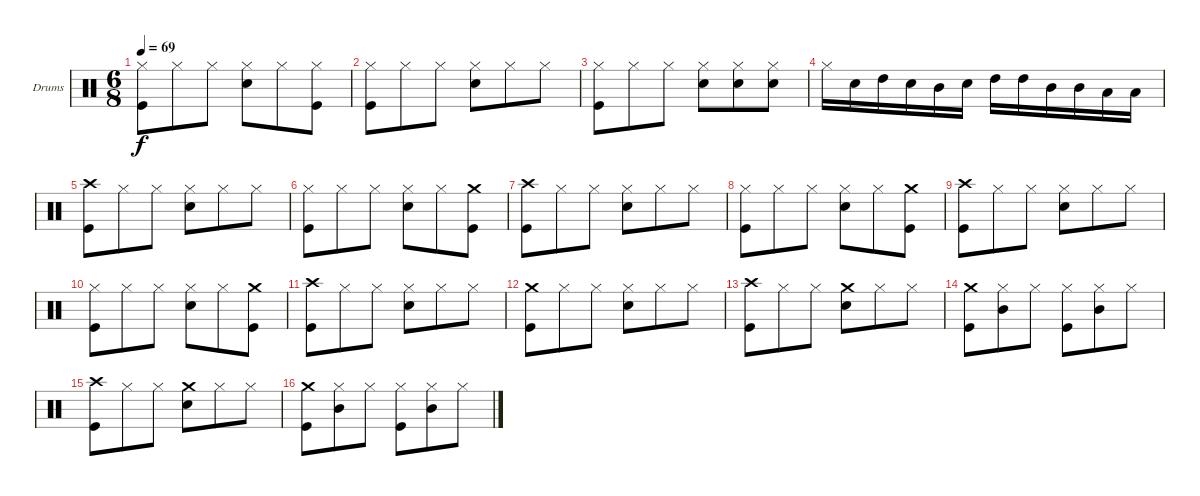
\defaultSystemsLayout 4
\bracketExtendMode groupsimilarinstruments
\firstSystemTrackNameOrientation horizontal
\otherSystemsTrackNameOrientation horizontal
\track ("Удар" "Drums") {instrument percussion}
\staff {score}
\articulation defaults
\ts (6 8)
\tempo 69
\clef neutral
\ks c
("Hi-Hat (closed)" "Kick (hit)").8{dy f} "Hi-Hat (closed)".8 "Hi-Hat (closed)".8 ("Hi-Hat (closed)" "Snare (hit) 2").8 "Hi-Hat (closed)".8 ("Hi-Hat (closed)" "Kick (hit)").8 |
("Hi-Hat (closed)" "Kick (hit)").8 "Hi-Hat (closed)".8 "Hi-Hat (closed)".8 ("Hi-Hat (closed)" "Snare (hit) 2").8 "Hi-Hat (closed)".8 "Hi-Hat (closed)".8 |
("Hi-Hat (closed)" "Kick (hit)").8 "Hi-Hat (closed)".8 "Hi-Hat (closed)".8 ("Hi-Hat (closed)" "Snare (hit) 2").8 ("Hi-Hat (closed)" "Snare (hit) 2").8 ("Hi-Hat (closed)" "Snare (hit) 2").8 |
"Hi-Hat (closed)".16 "Snare (hit) 2".16 "High Tom (hit)".16 "Snare (hit) 2".16 "Mid Tom (hit)".16 "Snare (hit) 2".16 "High Tom (hit)".16 "High Tom (hit)".16 "Mid Tom (hit)".16 "Mid Tom (hit)".16 "Low Tom (hit)".16 "Low Tom (hit)".16 |
("Crash high (hit)" "Kick (hit)").8 "Hi-Hat (closed)".8 "Hi-Hat (closed)".8 ("Hi-Hat (closed)" "Snare (hit) 2").8 "Hi-Hat (closed)".8 "Hi-Hat (closed)".8 |
("Hi-Hat (closed)" "Kick (hit)").8 "Hi-Hat (closed)".8 "Hi-Hat (closed)".8 ("Hi-Hat (closed)" "Snare (hit) 2").8 "Hi-Hat (closed)".8 ("Crash medium (hit)" "Kick (hit)").8 |
("Crash high (hit)" "Kick (hit)").8 "Hi-Hat (closed)".8 "Hi-Hat (closed)".8 ("Hi-Hat (closed)" "Snare (hit) 2").8 "Hi-Hat (closed)".8 "Hi-Hat (closed)".8 |
("Hi-Hat (closed)" "Kick (hit)").8 "Hi-Hat (closed)".8 "Hi-Hat (closed)".8 ("Hi-Hat (closed)" "Snare (hit) 2").8 "Hi-Hat (closed)".8 ("Crash medium (hit)" "Kick (hit)").8 |
("Crash high (hit)" "Kick (hit)").8 "Hi-Hat (closed)".8 "Hi-Hat (closed)".8 ("Hi-Hat (closed)" "Snare (hit) 2").8 "Hi-Hat (closed)".8 "Hi-Hat (closed)".8 |
("Hi-Hat (closed)" "Kick (hit)").8 "Hi-Hat (closed)".8 "Hi-Hat (closed)".8 ("Hi-Hat (closed)" "Snare (hit) 2").8 "Hi-Hat (closed)".8 ("Crash medium (hit)" "Kick (hit)").8 |
("Crash high (hit)" "Kick (hit)").8 "Hi-Hat (closed)".8 "Hi-Hat (closed)".8 ("Hi-Hat (closed)" "Snare (hit) 2").8 "Hi-Hat (closed)".8 "Hi-Hat (closed)".8 |
("Crash medium (hit)" "Kick (hit)").8 "Hi-Hat (closed)".8 "Hi-Hat (closed)".8 ("Hi-Hat (closed)" "Snare (hit) 2").8 "Hi-Hat (closed)".8 "Hi-Hat (closed)".8 |
("Crash high (hit)" "Kick (hit)").8 "Hi-Hat (closed)".8 "Hi-Hat (closed)".8 ("Crash medium (hit)" "Snare (hit) 2").8 "Hi-Hat (closed)".8 "Hi-Hat (closed)".8 |
("Crash medium (hit)" "Kick (hit)").8 ("Hi-Hat (closed)" "Mid Tom (hit)").8 "Hi-Hat (closed)".8 ("Hi-Hat (closed)" "Kick (hit)").8 ("Hi-Hat (closed)" "Mid Tom (hit)").8 "Hi-Hat (closed)".8 |
("Crash high (hit)" "Kick (hit)").8 "Hi-Hat (closed)".8 "Hi-Hat (closed)".8 ("Crash medium (hit)" "Snare (hit) 2").8 "Hi-Hat (closed)".8 "Hi-Hat (closed)".8 |
("Crash medium (hit)" "Kick (hit)").8 ("Hi-Hat (closed)" "Mid Tom (hit)").8 "Hi-Hat (closed)".8 ("Hi-Hat (closed)" "Kick (hit)").8 ("Hi-Hat (closed)" "Mid Tom (hit)").8 "Hi-Hat (closed)".8
